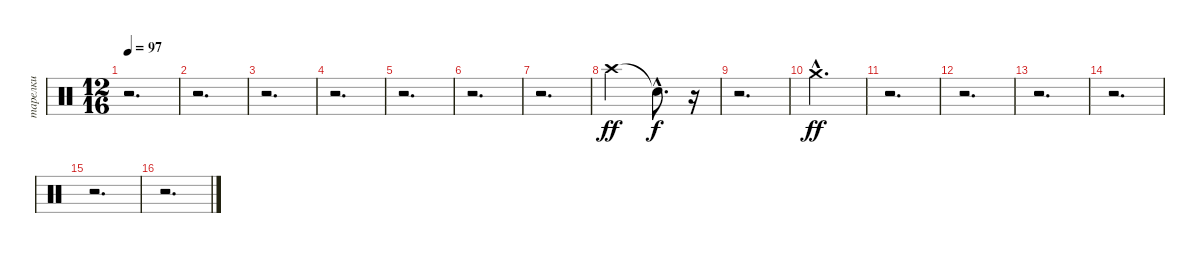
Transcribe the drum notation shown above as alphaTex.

\track ("тарелки" "тарелки") {instrument percussion}
\staff {score}
\articulation defaults
\ts (12 16)
\tempo 97
\clef neutral
\ks c
r.2{d dy ff} |
r.2{d} |
r.2{d} |
r.2{d} |
r.2{d} |
r.2{d} |
r.2{d} |
"Crash high (hit)".2 "Snare (hit)"{hac t}.8{d dy f} r.16 |
r.2{d} |
"Crash medium (hit)"{hac}.2{d dy ff} |
r.2{d} |
r.2{d} |
r.2{d} |
r.2{d} |
r.2{d} |
r.2{d}
